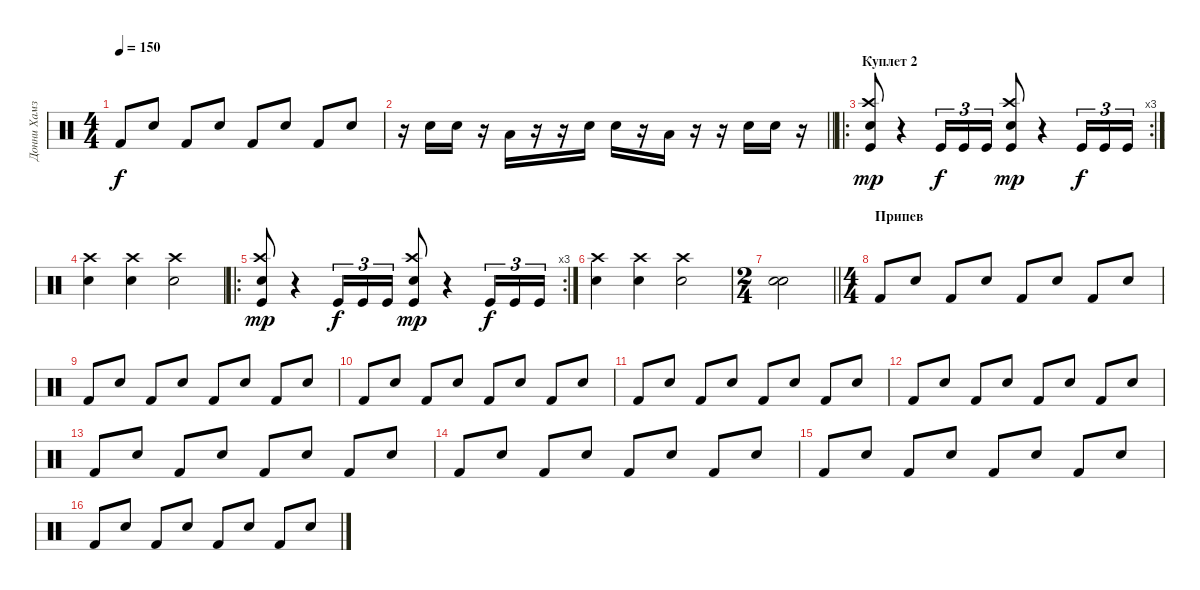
\track ("Донни Хамзик" "Донни Хамз") {instrument percussion}
\staff {score}
\articulation defaults
\ts (4 4)
\tempo 150
\clef neutral
\ks c "Kick (hit) 2".8{dy f} "Snare (hit) 2".8 "Kick (hit) 2".8 "Snare (hit) 2".8 "Kick (hit) 2".8 "Snare (hit) 2".8 "Kick (hit) 2".8 "Snare (hit) 2".8
|
\barLineRight lightlight
r.16 "Snare (hit) 2".16 "Snare (hit) 2".16 r.16 "Low Tom (hit)".16 r.16 r.16 "Snare (hit) 2".16 "Snare (hit) 2".16 r.16 "Low Tom (hit)".16 r.16 r.16 "Snare (hit) 2".16 "Snare (hit) 2".16 r.16 |
\ro
\rc 3
\section ("" "Куплет 2")
("Crash high (hit)" "Snare (hit) 2" "Kick (hit)").8{dy mp} r.4 "Kick (hit)".16{tu (3 2) dy f} "Kick (hit)".16{tu (3 2)} "Kick (hit)".16{tu (3 2)} ("Crash high (hit)" "Snare (hit) 2" "Kick (hit)").8{dy mp} r.4 "Kick (hit)".16{tu (3 2) dy f} "Kick (hit)".16{tu (3 2)} "Kick (hit)".16{tu (3 2)} |
("Crash high (hit)" "Snare (hit) 2").4 ("Crash high (hit)" "Snare (hit) 2").4 ("Crash high (hit)" "Snare (hit) 2").2 |
\ro
\rc 3
("Crash high (hit)" "Snare (hit) 2" "Kick (hit)").8{dy mp} r.4 "Kick (hit)".16{tu (3 2) dy f} "Kick (hit)".16{tu (3 2)} "Kick (hit)".16{tu (3 2)} ("Crash high (hit)" "Snare (hit) 2" "Kick (hit)").8{dy mp} r.4 "Kick (hit)".16{tu (3 2) dy f} "Kick (hit)".16{tu (3 2)} "Kick (hit)".16{tu (3 2)} |
("Crash high (hit)" "Snare (hit) 2").4 ("Crash high (hit)" "Snare (hit) 2").4 ("Crash high (hit)" "Snare (hit) 2").2 |
\ts (2 4)
\barLineRight lightlight
("Electric Snare (hit)" "Electric Snare (hit)").2 |
\ts (4 4)
\section ("" "Припев")
"Kick (hit) 2".8 "Snare (hit) 2".8 "Kick (hit) 2".8 "Snare (hit) 2".8 "Kick (hit) 2".8 "Snare (hit) 2".8 "Kick (hit) 2".8 "Snare (hit) 2".8 |
"Kick (hit) 2".8 "Snare (hit) 2".8 "Kick (hit) 2".8 "Snare (hit) 2".8 "Kick (hit) 2".8 "Snare (hit) 2".8 "Kick (hit) 2".8 "Snare (hit) 2".8 |
"Kick (hit) 2".8 "Snare (hit) 2".8 "Kick (hit) 2".8 "Snare (hit) 2".8 "Kick (hit) 2".8 "Snare (hit) 2".8 "Kick (hit) 2".8 "Snare (hit) 2".8 |
"Kick (hit) 2".8 "Snare (hit) 2".8 "Kick (hit) 2".8 "Snare (hit) 2".8 "Kick (hit) 2".8 "Snare (hit) 2".8 "Kick (hit) 2".8 "Snare (hit) 2".8 |
"Kick (hit) 2".8 "Snare (hit) 2".8 "Kick (hit) 2".8 "Snare (hit) 2".8 "Kick (hit) 2".8 "Snare (hit) 2".8 "Kick (hit) 2".8 "Snare (hit) 2".8 |
"Kick (hit) 2".8 "Snare (hit) 2".8 "Kick (hit) 2".8 "Snare (hit) 2".8 "Kick (hit) 2".8 "Snare (hit) 2".8 "Kick (hit) 2".8 "Snare (hit) 2".8 |
"Kick (hit) 2".8 "Snare (hit) 2".8 "Kick (hit) 2".8 "Snare (hit) 2".8 "Kick (hit) 2".8 "Snare (hit) 2".8 "Kick (hit) 2".8 "Snare (hit) 2".8 |
"Kick (hit) 2".8 "Snare (hit) 2".8 "Kick (hit) 2".8 "Snare (hit) 2".8 "Kick (hit) 2".8 "Snare (hit) 2".8 "Kick (hit) 2".8 "Snare (hit) 2".8 |
"Kick (hit) 2".8 "Snare (hit) 2".8 "Kick (hit) 2".8 "Snare (hit) 2".8 "Kick (hit) 2".8 "Snare (hit) 2".8 "Kick (hit) 2".8 "Snare (hit) 2".8
